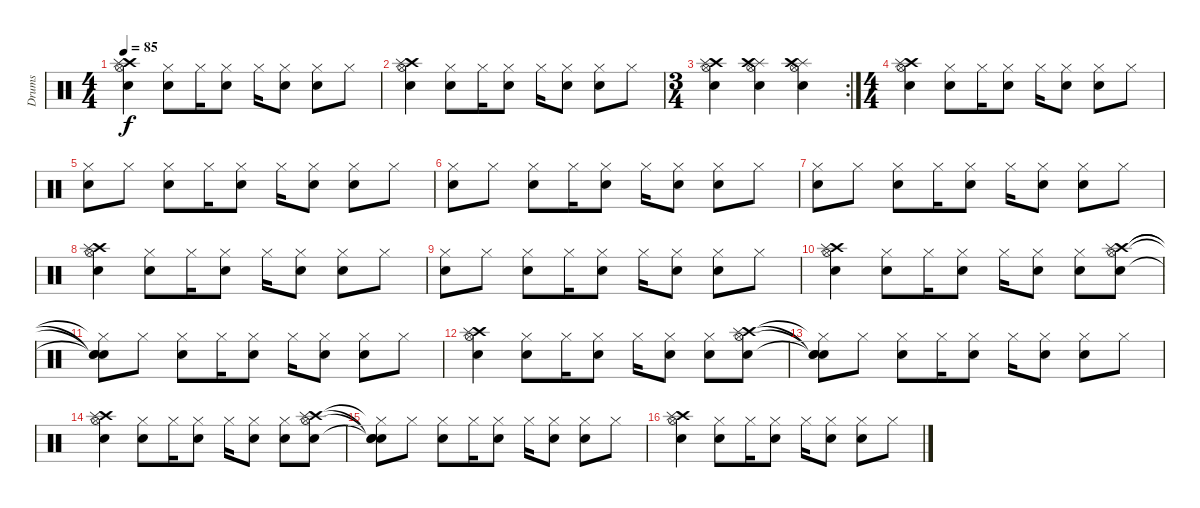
\track ("Drums" "Drums") {instrument percussion}
\staff {score}
\articulation defaults
\ts (4 4)
\tempo 85
\clef neutral
\ks c
("Crash high (hit)" "Splash (hit)" "Snare (hit) 2" "Hi-Hat (open)").4{dy f} ("Hi-Hat (closed)" "Snare (hit) 2").8 "Hi-Hat (closed)".16 ("Hi-Hat (closed)" "Snare (hit) 2").8 "Hi-Hat (closed)".16 ("Hi-Hat (closed)" "Snare (hit) 2").8 ("Hi-Hat (closed)" "Snare (hit) 2").8 "Hi-Hat (closed)".8 |
("Crash high (hit)" "Splash (hit)" "Snare (hit) 2" "Hi-Hat (open)").4 ("Hi-Hat (closed)" "Snare (hit) 2").8 "Hi-Hat (closed)".16 ("Hi-Hat (closed)" "Snare (hit) 2").8 "Hi-Hat (closed)".16 ("Hi-Hat (closed)" "Snare (hit) 2").8 ("Hi-Hat (closed)" "Snare (hit) 2").8 "Hi-Hat (closed)".8 |
\rc 2
\ts (3 4)
("Crash high (hit)" "Splash (hit)" "Snare (hit) 2" "Hi-Hat (open)").4 ("Splash (hit)" "Hi-Hat (open)" "Crash high (hit)" "Snare (hit) 2").4 ("Hi-Hat (open)" "Snare (hit) 2" "Splash (hit)" "Crash high (hit)").4 |
\ts (4 4)
("Crash high (hit)" "Splash (hit)" "Snare (hit) 2" "Hi-Hat (open)").4 ("Hi-Hat (closed)" "Snare (hit) 2").8 "Hi-Hat (closed)".16 ("Hi-Hat (closed)" "Snare (hit) 2").8 "Hi-Hat (closed)".16 ("Hi-Hat (closed)" "Snare (hit) 2").8 ("Hi-Hat (closed)" "Snare (hit) 2").8 "Hi-Hat (closed)".8 |
("Hi-Hat (closed)" "Snare (hit) 2").8 "Hi-Hat (closed)".8 ("Hi-Hat (closed)" "Snare (hit) 2").8 "Hi-Hat (closed)".16 ("Hi-Hat (closed)" "Snare (hit) 2").8 "Hi-Hat (closed)".16 ("Hi-Hat (closed)" "Snare (hit) 2").8 ("Hi-Hat (closed)" "Snare (hit) 2").8 "Hi-Hat (closed)".8 |
("Hi-Hat (closed)" "Snare (hit) 2").8 "Hi-Hat (closed)".8 ("Hi-Hat (closed)" "Snare (hit) 2").8 "Hi-Hat (closed)".16 ("Hi-Hat (closed)" "Snare (hit) 2").8 "Hi-Hat (closed)".16 ("Hi-Hat (closed)" "Snare (hit) 2").8 ("Hi-Hat (closed)" "Snare (hit) 2").8 "Hi-Hat (closed)".8 |
("Hi-Hat (closed)" "Snare (hit) 2").8 "Hi-Hat (closed)".8 ("Hi-Hat (closed)" "Snare (hit) 2").8 "Hi-Hat (closed)".16 ("Hi-Hat (closed)" "Snare (hit) 2").8 "Hi-Hat (closed)".16 ("Hi-Hat (closed)" "Snare (hit) 2").8 ("Hi-Hat (closed)" "Snare (hit) 2").8 "Hi-Hat (closed)".8 |
("Crash high (hit)" "Splash (hit)" "Snare (hit) 2" "Hi-Hat (open)").4 ("Hi-Hat (closed)" "Snare (hit) 2").8 "Hi-Hat (closed)".16 ("Hi-Hat (closed)" "Snare (hit) 2").8 "Hi-Hat (closed)".16 ("Hi-Hat (closed)" "Snare (hit) 2").8 ("Hi-Hat (closed)" "Snare (hit) 2").8 "Hi-Hat (closed)".8 |
("Hi-Hat (closed)" "Snare (hit) 2").8 "Hi-Hat (closed)".8 ("Hi-Hat (closed)" "Snare (hit) 2").8 "Hi-Hat (closed)".16 ("Hi-Hat (closed)" "Snare (hit) 2").8 "Hi-Hat (closed)".16 ("Hi-Hat (closed)" "Snare (hit) 2").8 ("Hi-Hat (closed)" "Snare (hit) 2").8 "Hi-Hat (closed)".8 |
("Crash high (hit)" "Splash (hit)" "Snare (hit) 2" "Hi-Hat (open)").4 ("Hi-Hat (closed)" "Snare (hit) 2").8 "Hi-Hat (closed)".16 ("Hi-Hat (closed)" "Snare (hit) 2").8 "Hi-Hat (closed)".16 ("Hi-Hat (closed)" "Snare (hit) 2").8 ("Hi-Hat (closed)" "Snare (hit) 2").8 ("Crash high (hit)" "Splash (hit)" "Snare (hit) 2" "Hi-Hat (open)").8 |
("Hi-Hat (closed)"{t} "Snare (hit) 2"{t} "Snare (hit)"{t} "Snare (hit)"{t}).8 "Hi-Hat (closed)".8 ("Hi-Hat (closed)" "Snare (hit) 2").8 "Hi-Hat (closed)".16 ("Hi-Hat (closed)" "Snare (hit) 2").8 "Hi-Hat (closed)".16 ("Hi-Hat (closed)" "Snare (hit) 2").8 ("Hi-Hat (closed)" "Snare (hit) 2").8 "Hi-Hat (closed)".8 |
("Crash high (hit)" "Splash (hit)" "Snare (hit) 2" "Hi-Hat (open)").4 ("Hi-Hat (closed)" "Snare (hit) 2").8 "Hi-Hat (closed)".16 ("Hi-Hat (closed)" "Snare (hit) 2").8 "Hi-Hat (closed)".16 ("Hi-Hat (closed)" "Snare (hit) 2").8 ("Hi-Hat (closed)" "Snare (hit) 2").8 ("Crash high (hit)" "Splash (hit)" "Snare (hit) 2" "Hi-Hat (open)").8 |
("Hi-Hat (closed)"{t} "Snare (hit) 2"{t} "Snare (hit)"{t} "Snare (hit)"{t}).8 "Hi-Hat (closed)".8 ("Hi-Hat (closed)" "Snare (hit) 2").8 "Hi-Hat (closed)".16 ("Hi-Hat (closed)" "Snare (hit) 2").8 "Hi-Hat (closed)".16 ("Hi-Hat (closed)" "Snare (hit) 2").8 ("Hi-Hat (closed)" "Snare (hit) 2").8 "Hi-Hat (closed)".8 |
("Crash high (hit)" "Splash (hit)" "Snare (hit) 2" "Hi-Hat (open)").4 ("Hi-Hat (closed)" "Snare (hit) 2").8 "Hi-Hat (closed)".16 ("Hi-Hat (closed)" "Snare (hit) 2").8 "Hi-Hat (closed)".16 ("Hi-Hat (closed)" "Snare (hit) 2").8 ("Hi-Hat (closed)" "Snare (hit) 2").8 ("Crash high (hit)" "Splash (hit)" "Snare (hit) 2" "Hi-Hat (open)").8 |
("Hi-Hat (closed)"{t} "Snare (hit) 2"{t} "Snare (hit)"{t} "Snare (hit)"{t}).8 "Hi-Hat (closed)".8 ("Hi-Hat (closed)" "Snare (hit) 2").8 "Hi-Hat (closed)".16 ("Hi-Hat (closed)" "Snare (hit) 2").8 "Hi-Hat (closed)".16 ("Hi-Hat (closed)" "Snare (hit) 2").8 ("Hi-Hat (closed)" "Snare (hit) 2").8 "Hi-Hat (closed)".8 |
("Crash high (hit)" "Splash (hit)" "Snare (hit) 2" "Hi-Hat (open)").4 ("Hi-Hat (closed)" "Snare (hit) 2").8 "Hi-Hat (closed)".16 ("Hi-Hat (closed)" "Snare (hit) 2").8 "Hi-Hat (closed)".16 ("Hi-Hat (closed)" "Snare (hit) 2").8 ("Hi-Hat (closed)" "Snare (hit) 2").8 "Hi-Hat (closed)".8
